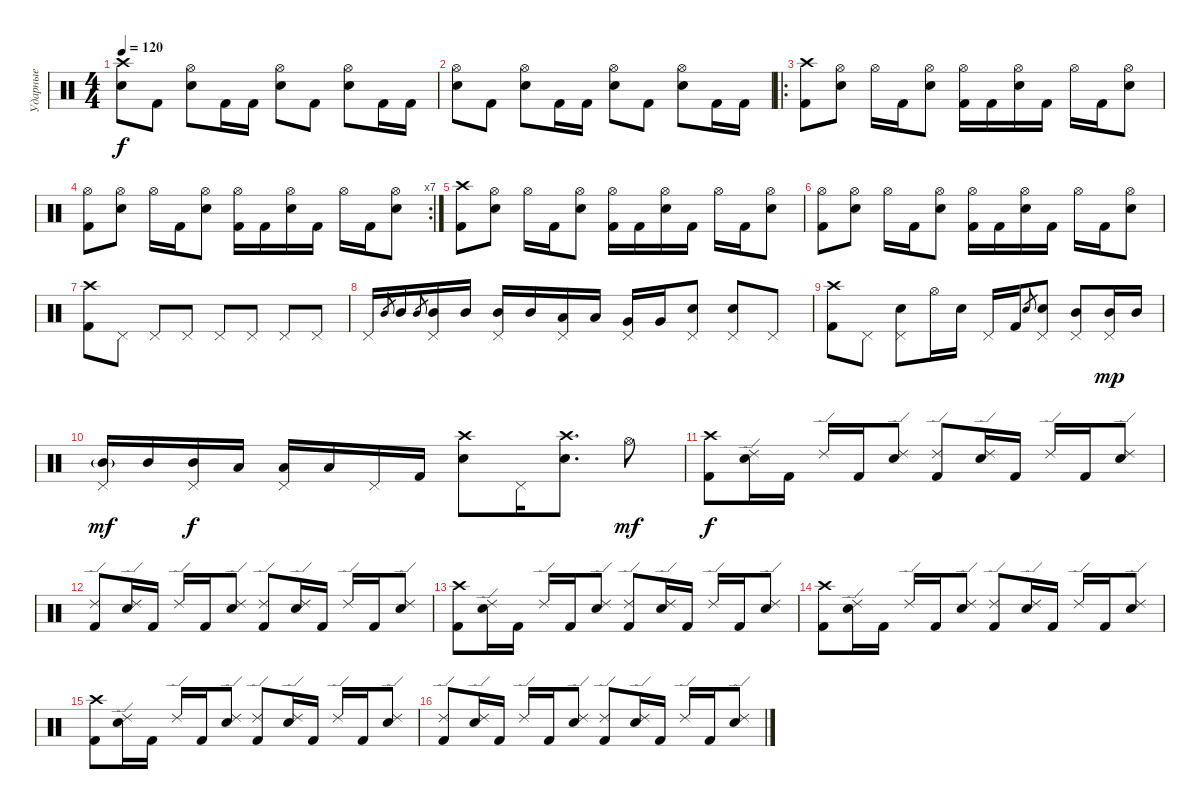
\track ("Ударные" "Ударные") {instrument percussion}
\staff {score}
\articulation defaults
\ts (4 4)
\tempo 120
\clef neutral
\ks c
("Electric Snare (hit)" "Crash high (hit)").8{dy f} "Kick (hit) 2".8 ("Electric Snare (hit)" "Hi-Hat (open)").8 "Kick (hit) 2".16 "Kick (hit) 2".16 ("Electric Snare (hit)" "Hi-Hat (open)").8 "Kick (hit) 2".8 ("Electric Snare (hit)" "Hi-Hat (open)").8 "Kick (hit) 2".16 "Kick (hit) 2".16 |
("Electric Snare (hit)" "Hi-Hat (open)").8 "Kick (hit) 2".8 ("Electric Snare (hit)" "Hi-Hat (open)").8 "Kick (hit) 2".16 "Kick (hit) 2".16 ("Electric Snare (hit)" "Hi-Hat (open)").8 "Kick (hit) 2".8 ("Electric Snare (hit)" "Hi-Hat (open)").8 "Kick (hit) 2".16 "Kick (hit) 2".16 |
\ro
("Kick (hit) 2" "Crash high (hit)").8 ("Electric Snare (hit)" "Hi-Hat (open)").8 "Hi-Hat (open)".16 "Kick (hit) 2".16 ("Electric Snare (hit)" "Hi-Hat (open)").8 ("Kick (hit) 2" "Hi-Hat (open)").16 "Kick (hit) 2".16 ("Electric Snare (hit)" "Hi-Hat (open)").16 "Kick (hit) 2".16 "Hi-Hat (open)".16 "Kick (hit) 2".16 ("Electric Snare (hit)" "Hi-Hat (open)").8 |
\rc 7
("Kick (hit) 2" "Hi-Hat (open)").8 ("Electric Snare (hit)" "Hi-Hat (open)").8 "Hi-Hat (open)".16 "Kick (hit) 2".16 ("Electric Snare (hit)" "Hi-Hat (open)").8 ("Kick (hit) 2" "Hi-Hat (open)").16 "Kick (hit) 2".16 ("Electric Snare (hit)" "Hi-Hat (open)").16 "Kick (hit) 2".16 "Hi-Hat (open)".16 "Kick (hit) 2".16 ("Electric Snare (hit)" "Hi-Hat (open)").8 |
("Kick (hit) 2" "Crash high (hit)").8 ("Electric Snare (hit)" "Hi-Hat (open)").8 "Hi-Hat (open)".16 "Kick (hit) 2".16 ("Electric Snare (hit)" "Hi-Hat (open)").8 ("Kick (hit) 2" "Hi-Hat (open)").16 "Kick (hit) 2".16 ("Electric Snare (hit)" "Hi-Hat (open)").16 "Kick (hit) 2".16 "Hi-Hat (open)".16 "Kick (hit) 2".16 ("Electric Snare (hit)" "Hi-Hat (open)").8 |
("Kick (hit) 2" "Hi-Hat (open)").8 ("Electric Snare (hit)" "Hi-Hat (open)").8 "Hi-Hat (open)".16 "Kick (hit) 2".16 ("Electric Snare (hit)" "Hi-Hat (open)").8 ("Kick (hit) 2" "Hi-Hat (open)").16 "Kick (hit) 2".16 ("Electric Snare (hit)" "Hi-Hat (open)").16 "Kick (hit) 2".16 "Hi-Hat (open)".16 "Kick (hit) 2".16 ("Electric Snare (hit)" "Hi-Hat (open)").8 |
("Kick (hit) 2" "Crash high (hit)").8 "Pedal Hi-Hat (hit)".8 "Pedal Hi-Hat (hit)".8 "Pedal Hi-Hat (hit)".8 "Pedal Hi-Hat (hit)".8 "Pedal Hi-Hat (hit)".8 "Pedal Hi-Hat (hit)".8 "Pedal Hi-Hat (hit)".8 |
"Pedal Hi-Hat (hit)".16 "Mid Tom (hit)".8{gr} "Mid Tom (hit)".16 "Mid Tom (hit)".8{gr} ("Pedal Hi-Hat (hit)" "Mid Tom (hit)").16 "Mid Tom (hit)".16 ("Pedal Hi-Hat (hit)" "Mid Tom (hit)").16 "Mid Tom (hit)".16 ("Pedal Hi-Hat (hit)" "Low Tom (hit)").16 "Low Tom (hit)".16 ("Pedal Hi-Hat (hit)" "Very Low Tom (hit)").16 "Very Low Tom (hit)".16 ("Pedal Hi-Hat (hit)" "Electric Snare (hit)").8 ("Pedal Hi-Hat (hit)" "Electric Snare (hit)").8 "Pedal Hi-Hat (hit)".8 |
("Kick (hit) 2" "Crash high (hit)").8 "Pedal Hi-Hat (hit)".8 ("Pedal Hi-Hat (hit)" "Electric Snare (hit)").8 "Hi-Hat (open)".16 "Electric Snare (hit)".16 "Pedal Hi-Hat (hit)".16 "Kick (hit) 2".16 "Electric Snare (hit)".8{gr} ("Pedal Hi-Hat (hit)" "Electric Snare (hit)").8 ("Pedal Hi-Hat (hit)" "Mid Tom (hit)").8 ("Pedal Hi-Hat (hit)" "Mid Tom (hit)").16{dy mp} "Mid Tom (hit)".16 |
("Pedal Hi-Hat (hit)" "Mid Tom (hit)"{g}).16{dy mf} "Mid Tom (hit)".16 ("Pedal Hi-Hat (hit)" "Mid Tom (hit)").16{dy f} "Low Tom (hit)".16 ("Pedal Hi-Hat (hit)" "Low Tom (hit)").16 "Low Tom (hit)".16 "Pedal Hi-Hat (hit)".16 "Kick (hit) 2".16 ("Electric Snare (hit)" "Crash high (hit)").8 "Pedal Hi-Hat (hit)".16 ("Crash high (hit)" "Electric Snare (hit)").8{d} "Hi-Hat (open)".8{dy mf} |
("Kick (hit) 2" "Crash high (hit)").8{dy f} ("Electric Snare (hit)" "Ride (edge) 2").16 "Kick (hit) 2".16 "Ride (edge) 2".16 "Kick (hit) 2".16 ("Electric Snare (hit)" "Ride (edge) 2").8 ("Kick (hit) 2" "Ride (edge) 2").8 ("Electric Snare (hit)" "Ride (edge) 2").16 "Kick (hit) 2".16 "Ride (edge) 2".16 "Kick (hit) 2".16 ("Electric Snare (hit)" "Ride (edge) 2").8 |
("Kick (hit) 2" "Ride (edge) 2").8 ("Electric Snare (hit)" "Ride (edge) 2").16 "Kick (hit) 2".16 "Ride (edge) 2".16 "Kick (hit) 2".16 ("Electric Snare (hit)" "Ride (edge) 2").8 ("Kick (hit) 2" "Ride (edge) 2").8 ("Electric Snare (hit)" "Ride (edge) 2").16 "Kick (hit) 2".16 "Ride (edge) 2".16 "Kick (hit) 2".16 ("Electric Snare (hit)" "Ride (edge) 2").8 |
("Kick (hit) 2" "Crash high (hit)").8 ("Electric Snare (hit)" "Ride (edge) 2").16 "Kick (hit) 2".16 "Ride (edge) 2".16 "Kick (hit) 2".16 ("Electric Snare (hit)" "Ride (edge) 2").8 ("Kick (hit) 2" "Ride (edge) 2").8 ("Electric Snare (hit)" "Ride (edge) 2").16 "Kick (hit) 2".16 "Ride (edge) 2".16 "Kick (hit) 2".16 ("Electric Snare (hit)" "Ride (edge) 2").8 |
("Kick (hit) 2" "Crash high (hit)").8 ("Electric Snare (hit)" "Ride (edge) 2").16 "Kick (hit) 2".16 "Ride (edge) 2".16 "Kick (hit) 2".16 ("Electric Snare (hit)" "Ride (edge) 2").8 ("Kick (hit) 2" "Ride (edge) 2").8 ("Electric Snare (hit)" "Ride (edge) 2").16 "Kick (hit) 2".16 "Ride (edge) 2".16 "Kick (hit) 2".16 ("Electric Snare (hit)" "Ride (edge) 2").8 |
("Kick (hit) 2" "Crash high (hit)").8 ("Electric Snare (hit)" "Ride (edge) 2").16 "Kick (hit) 2".16 "Ride (edge) 2".16 "Kick (hit) 2".16 ("Electric Snare (hit)" "Ride (edge) 2").8 ("Kick (hit) 2" "Ride (edge) 2").8 ("Electric Snare (hit)" "Ride (edge) 2").16 "Kick (hit) 2".16 "Ride (edge) 2".16 "Kick (hit) 2".16 ("Electric Snare (hit)" "Ride (edge) 2").8 |
("Kick (hit) 2" "Ride (edge) 2").8 ("Electric Snare (hit)" "Ride (edge) 2").16 "Kick (hit) 2".16 "Ride (edge) 2".16 "Kick (hit) 2".16 ("Electric Snare (hit)" "Ride (edge) 2").8 ("Kick (hit) 2" "Ride (edge) 2").8 ("Electric Snare (hit)" "Ride (edge) 2").16 "Kick (hit) 2".16 "Ride (edge) 2".16 "Kick (hit) 2".16 ("Electric Snare (hit)" "Ride (edge) 2").8
